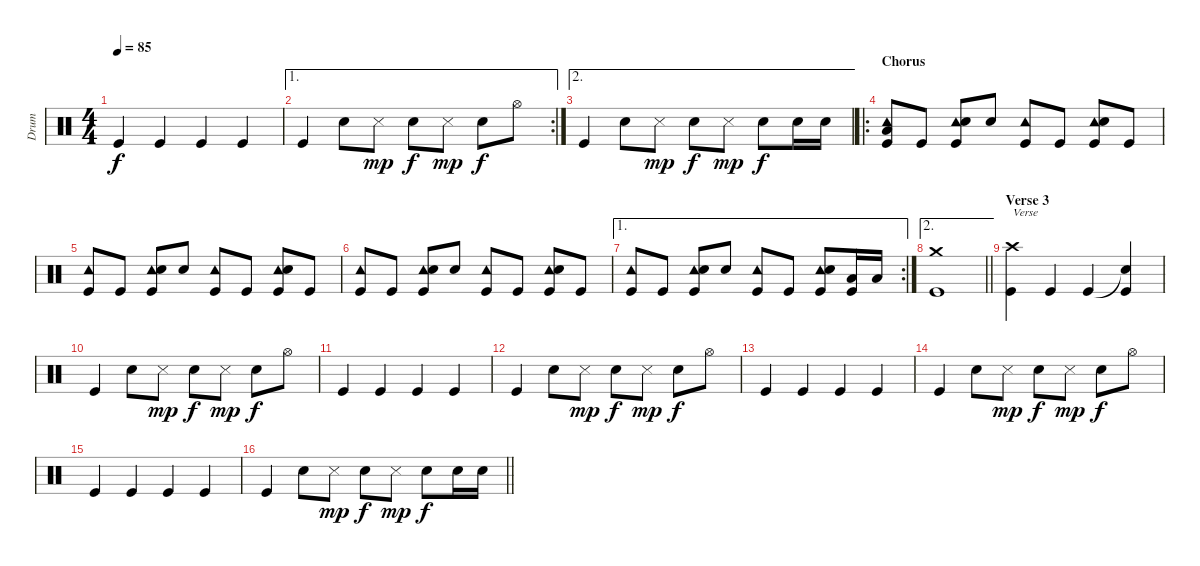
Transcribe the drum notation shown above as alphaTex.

\track ("Drum" "Drum") {instrument percussion}
\staff {score}
\articulation defaults
\ts (4 4)
\tempo 85
\clef neutral
\ks c "Kick (hit)".4{dy f} "Kick (hit)".4 "Kick (hit)".4 "Kick (hit)".4
|
\ae 1
\rc 2 "Kick (hit)".4 "Electric Snare (hit)".8 "Snare (side stick) 3".8{dy mp} "Electric Snare (hit)".8{dy f} "Snare (side stick) 3".8{dy mp} "Electric Snare (hit)".8{dy f} "Hi-Hat (open)".8
|
\ae 2 "Kick (hit)".4 "Electric Snare (hit)".8 "Snare (side stick) 3".8{dy mp} "Electric Snare (hit)".8{dy f} "Snare (side stick) 3".8{dy mp} "Electric Snare (hit)".8{dy f} "Electric Snare (hit)".16 "Electric Snare (hit)".16
|
\ro
\section ("" "Chorus")
("Tambourine (hit)" "Low Floor Tom (hit)" "Kick (hit)").8 "Kick (hit)".8 ("Tambourine (hit)" "Snare (hit) 2" "Kick (hit)").8 "Snare (hit) 2".8 ("Tambourine (hit)" "Kick (hit)").8 "Kick (hit)".8 ("Tambourine (hit)" "Snare (hit) 2" "Kick (hit)").8 "Kick (hit)".8 |
("Tambourine (hit)" "Kick (hit)").8 "Kick (hit)".8 ("Tambourine (hit)" "Snare (hit) 2" "Kick (hit)").8 "Snare (hit) 2".8 ("Tambourine (hit)" "Kick (hit)").8 "Kick (hit)".8 ("Tambourine (hit)" "Snare (hit) 2" "Kick (hit)").8 "Kick (hit)".8 |
("Tambourine (hit)" "Kick (hit)").8 "Kick (hit)".8 ("Tambourine (hit)" "Snare (hit) 2" "Kick (hit)").8 "Snare (hit) 2".8 ("Tambourine (hit)" "Kick (hit)").8 "Kick (hit)".8 ("Tambourine (hit)" "Snare (hit) 2" "Kick (hit)").8 "Kick (hit)".8 |
\ae 1
\rc 2
("Tambourine (hit)" "Kick (hit)").8 "Kick (hit)".8 ("Tambourine (hit)" "Snare (hit) 2" "Kick (hit)").8 "Snare (hit) 2".8 ("Tambourine (hit)" "Kick (hit)").8 "Kick (hit)".8 ("Tambourine (hit)" "Snare (hit) 2" "Kick (hit)").8 ("Low Floor Tom (hit)" "Kick (hit)").16 "Low Floor Tom (hit)".16 |
\ae 2
\barLineRight lightlight
("Crash medium (hit)" "Kick (hit)").1 |
\section ("" "Verse 3")
("Crash high (hit)" "Kick (hit)").4{txt "Verse"} "Kick (hit)".4 "Kick (hit)".4 ("Snare (hit)"{t} "Kick (hit)").4 |
"Kick (hit)".4 "Electric Snare (hit)".8 "Snare (side stick) 3".8{dy mp} "Electric Snare (hit)".8{dy f} "Snare (side stick) 3".8{dy mp} "Electric Snare (hit)".8{dy f} "Hi-Hat (open)".8 |
"Kick (hit)".4 "Kick (hit)".4 "Kick (hit)".4 "Kick (hit)".4 |
"Kick (hit)".4 "Electric Snare (hit)".8 "Snare (side stick) 3".8{dy mp} "Electric Snare (hit)".8{dy f} "Snare (side stick) 3".8{dy mp} "Electric Snare (hit)".8{dy f} "Hi-Hat (open)".8 |
"Kick (hit)".4 "Kick (hit)".4 "Kick (hit)".4 "Kick (hit)".4 |
"Kick (hit)".4 "Electric Snare (hit)".8 "Snare (side stick) 3".8{dy mp} "Electric Snare (hit)".8{dy f} "Snare (side stick) 3".8{dy mp} "Electric Snare (hit)".8{dy f} "Hi-Hat (open)".8 |
"Kick (hit)".4 "Kick (hit)".4 "Kick (hit)".4 "Kick (hit)".4 |
\barLineRight lightlight "Kick (hit)".4 "Electric Snare (hit)".8 "Snare (side stick) 3".8{dy mp} "Electric Snare (hit)".8{dy f} "Snare (side stick) 3".8{dy mp} "Electric Snare (hit)".8{dy f} "Electric Snare (hit)".16 "Snare (hit)".16
